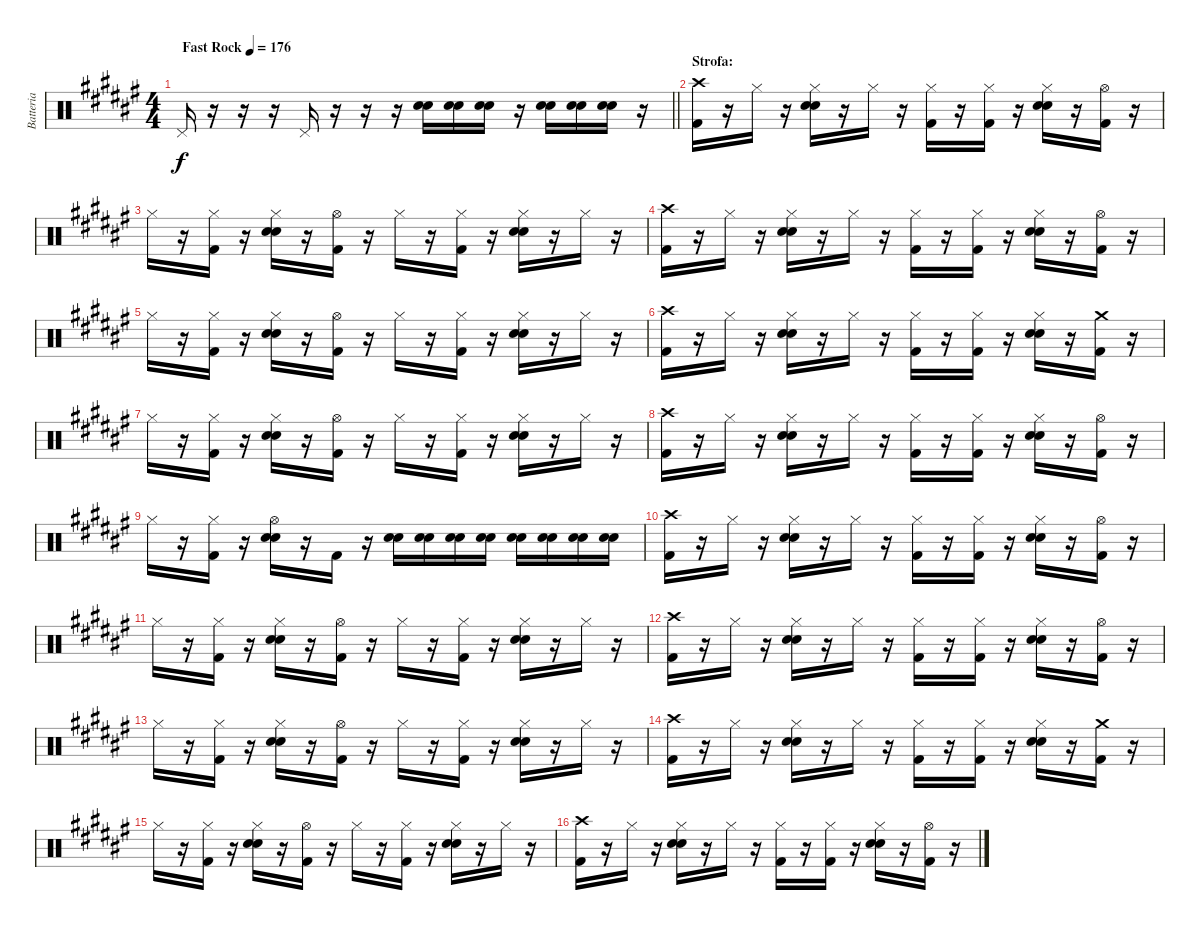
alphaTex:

\track ("Batteria" "Batteria") {instrument percussion}
\staff {score}
\articulation defaults
\ts (4 4)
\tempo (176 "Fast Rock")
\clef neutral
\barLineRight lightlight
\ks f# "Pedal Hi-Hat (hit)".16{dy f}
r.16 r.16 r.16 "Pedal Hi-Hat (hit)".16 r.16 r.16 r.16 ("Snare (hit) 2" "Snare (hit) 2").16 ("Snare (hit) 2" "Snare (hit) 2").16 ("Snare (hit) 2" "Snare (hit) 2").16 r.16 ("Snare (hit) 2" "Snare (hit) 2").16 ("Snare (hit) 2" "Snare (hit) 2").16 ("Snare (hit) 2" "Snare (hit) 2").16 r.16 |
\section ("" "Strofa:")
("Kick (hit) 2" "Crash high (hit)").16 r.16 "Hi-Hat (closed)".16 r.16 ("Snare (hit) 2" "Snare (hit) 2" "Hi-Hat (closed)").16 r.16 "Hi-Hat (closed)".16 r.16 ("Kick (hit) 2" "Hi-Hat (closed)").16 r.16 ("Kick (hit) 2" "Hi-Hat (closed)").16 r.16 ("Snare (hit) 2" "Snare (hit) 2" "Hi-Hat (closed)").16 r.16 ("Kick (hit) 2" "Hi-Hat (open)").16 r.16 |
"Hi-Hat (closed)".16 r.16 ("Kick (hit) 2" "Hi-Hat (closed)").16 r.16 ("Snare (hit) 2" "Snare (hit) 2" "Hi-Hat (closed)").16 r.16 ("Kick (hit) 2" "Hi-Hat (open)").16 r.16 "Hi-Hat (closed)".16 r.16 ("Kick (hit) 2" "Hi-Hat (closed)").16 r.16 ("Snare (hit) 2" "Snare (hit) 2" "Hi-Hat (closed)").16 r.16 "Hi-Hat (closed)".16 r.16 |
("Kick (hit) 2" "Crash high (hit)").16 r.16 "Hi-Hat (closed)".16 r.16 ("Snare (hit) 2" "Snare (hit) 2" "Hi-Hat (closed)").16 r.16 "Hi-Hat (closed)".16 r.16 ("Kick (hit) 2" "Hi-Hat (closed)").16 r.16 ("Kick (hit) 2" "Hi-Hat (closed)").16 r.16 ("Snare (hit) 2" "Snare (hit) 2" "Hi-Hat (closed)").16 r.16 ("Kick (hit) 2" "Hi-Hat (open)").16 r.16 |
"Hi-Hat (closed)".16 r.16 ("Kick (hit) 2" "Hi-Hat (closed)").16 r.16 ("Snare (hit) 2" "Snare (hit) 2" "Hi-Hat (closed)").16 r.16 ("Kick (hit) 2" "Hi-Hat (open)").16 r.16 "Hi-Hat (closed)".16 r.16 ("Kick (hit) 2" "Hi-Hat (closed)").16 r.16 ("Snare (hit) 2" "Snare (hit) 2" "Hi-Hat (closed)").16 r.16 "Hi-Hat (closed)".16 r.16 |
("Kick (hit) 2" "Crash high (hit)").16 r.16 "Hi-Hat (closed)".16 r.16 ("Snare (hit) 2" "Snare (hit) 2" "Hi-Hat (closed)").16 r.16 "Hi-Hat (closed)".16 r.16 ("Kick (hit) 2" "Hi-Hat (closed)").16 r.16 ("Kick (hit) 2" "Hi-Hat (closed)").16 r.16 ("Snare (hit) 2" "Snare (hit) 2" "Hi-Hat (closed)").16 r.16 ("Kick (hit) 2" "Crash medium (hit)").16 r.16 |
"Hi-Hat (closed)".16 r.16 ("Kick (hit) 2" "Hi-Hat (closed)").16 r.16 ("Snare (hit) 2" "Snare (hit) 2" "Hi-Hat (closed)").16 r.16 ("Kick (hit) 2" "Hi-Hat (open)").16 r.16 "Hi-Hat (closed)".16 r.16 ("Kick (hit) 2" "Hi-Hat (closed)").16 r.16 ("Snare (hit) 2" "Snare (hit) 2" "Hi-Hat (closed)").16 r.16 "Hi-Hat (closed)".16 r.16 |
("Kick (hit) 2" "Crash high (hit)").16 r.16 "Hi-Hat (closed)".16 r.16 ("Snare (hit) 2" "Snare (hit) 2" "Hi-Hat (closed)").16 r.16 "Hi-Hat (closed)".16 r.16 ("Kick (hit) 2" "Hi-Hat (closed)").16 r.16 ("Kick (hit) 2" "Hi-Hat (closed)").16 r.16 ("Snare (hit) 2" "Snare (hit) 2" "Hi-Hat (closed)").16 r.16 ("Kick (hit) 2" "Hi-Hat (open)").16 r.16 |
"Hi-Hat (closed)".16 r.16 ("Kick (hit) 2" "Hi-Hat (closed)").16 r.16 ("Snare (hit) 2" "Snare (hit) 2" "Hi-Hat (open)").16 r.16 "Kick (hit) 2".16 r.16 ("Snare (hit) 2" "Snare (hit) 2").16 ("Snare (hit) 2" "Snare (hit) 2").16 ("Snare (hit) 2" "Snare (hit) 2").16 ("Snare (hit) 2" "Snare (hit) 2").16 ("Snare (hit) 2" "Snare (hit) 2").16 ("Snare (hit) 2" "Snare (hit) 2").16 ("Snare (hit) 2" "Snare (hit) 2").16 ("Snare (hit) 2" "Snare (hit) 2").16 |
("Kick (hit) 2" "Crash high (hit)").16 r.16 "Hi-Hat (closed)".16 r.16 ("Snare (hit) 2" "Snare (hit) 2" "Hi-Hat (closed)").16 r.16 "Hi-Hat (closed)".16 r.16 ("Kick (hit) 2" "Hi-Hat (closed)").16 r.16 ("Kick (hit) 2" "Hi-Hat (closed)").16 r.16 ("Snare (hit) 2" "Snare (hit) 2" "Hi-Hat (closed)").16 r.16 ("Kick (hit) 2" "Hi-Hat (open)").16 r.16 |
"Hi-Hat (closed)".16 r.16 ("Kick (hit) 2" "Hi-Hat (closed)").16 r.16 ("Snare (hit) 2" "Snare (hit) 2" "Hi-Hat (closed)").16 r.16 ("Kick (hit) 2" "Hi-Hat (open)").16 r.16 "Hi-Hat (closed)".16 r.16 ("Kick (hit) 2" "Hi-Hat (closed)").16 r.16 ("Snare (hit) 2" "Snare (hit) 2" "Hi-Hat (closed)").16 r.16 "Hi-Hat (closed)".16 r.16 |
("Kick (hit) 2" "Crash high (hit)").16 r.16 "Hi-Hat (closed)".16 r.16 ("Snare (hit) 2" "Snare (hit) 2" "Hi-Hat (closed)").16 r.16 "Hi-Hat (closed)".16 r.16 ("Kick (hit) 2" "Hi-Hat (closed)").16 r.16 ("Kick (hit) 2" "Hi-Hat (closed)").16 r.16 ("Snare (hit) 2" "Snare (hit) 2" "Hi-Hat (closed)").16 r.16 ("Kick (hit) 2" "Hi-Hat (open)").16 r.16 |
"Hi-Hat (closed)".16 r.16 ("Kick (hit) 2" "Hi-Hat (closed)").16 r.16 ("Snare (hit) 2" "Snare (hit) 2" "Hi-Hat (closed)").16 r.16 ("Kick (hit) 2" "Hi-Hat (open)").16 r.16 "Hi-Hat (closed)".16 r.16 ("Kick (hit) 2" "Hi-Hat (closed)").16 r.16 ("Snare (hit) 2" "Snare (hit) 2" "Hi-Hat (closed)").16 r.16 "Hi-Hat (closed)".16 r.16 |
("Kick (hit) 2" "Crash high (hit)").16 r.16 "Hi-Hat (closed)".16 r.16 ("Snare (hit) 2" "Snare (hit) 2" "Hi-Hat (closed)").16 r.16 "Hi-Hat (closed)".16 r.16 ("Kick (hit) 2" "Hi-Hat (closed)").16 r.16 ("Kick (hit) 2" "Hi-Hat (closed)").16 r.16 ("Snare (hit) 2" "Snare (hit) 2" "Hi-Hat (closed)").16 r.16 ("Kick (hit) 2" "Crash medium (hit)").16 r.16 |
"Hi-Hat (closed)".16 r.16 ("Kick (hit) 2" "Hi-Hat (closed)").16 r.16 ("Snare (hit) 2" "Snare (hit) 2" "Hi-Hat (closed)").16 r.16 ("Kick (hit) 2" "Hi-Hat (open)").16 r.16 "Hi-Hat (closed)".16 r.16 ("Kick (hit) 2" "Hi-Hat (closed)").16 r.16 ("Snare (hit) 2" "Snare (hit) 2" "Hi-Hat (closed)").16 r.16 "Hi-Hat (closed)".16 r.16 |
("Kick (hit) 2" "Crash high (hit)").16 r.16 "Hi-Hat (closed)".16 r.16 ("Snare (hit) 2" "Snare (hit) 2" "Hi-Hat (closed)").16 r.16 "Hi-Hat (closed)".16 r.16 ("Kick (hit) 2" "Hi-Hat (closed)").16 r.16 ("Kick (hit) 2" "Hi-Hat (closed)").16 r.16 ("Snare (hit) 2" "Snare (hit) 2" "Hi-Hat (closed)").16 r.16 ("Kick (hit) 2" "Hi-Hat (open)").16 r.16
